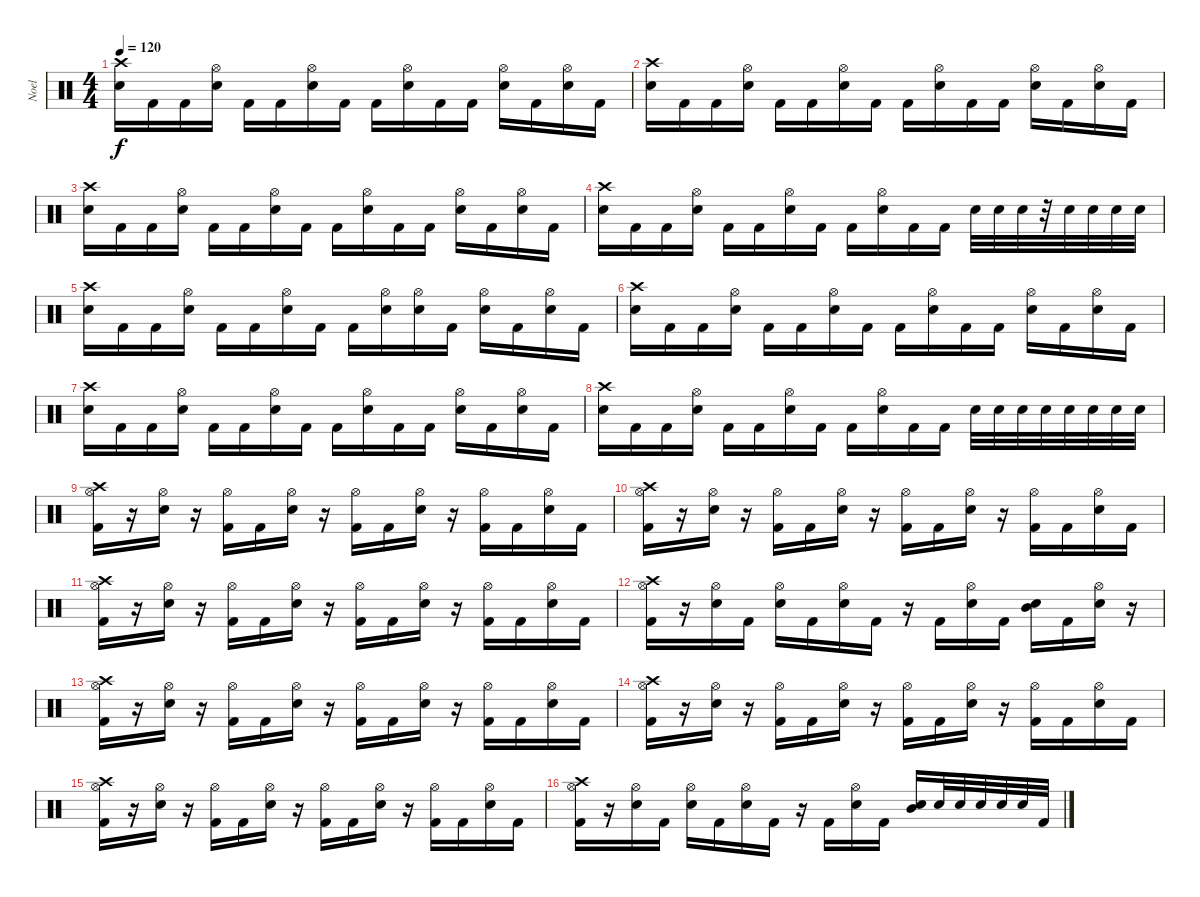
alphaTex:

\track ("Noel" "Noel") {instrument percussion}
\staff {score}
\articulation defaults
\ts (4 4)
\tempo 120
\clef neutral
\ks c
("Crash high (hit)" "Snare (hit) 2").16{dy f} "Kick (hit) 2".16 "Kick (hit) 2".16 ("Hi-Hat (open)" "Snare (hit) 2").16 "Kick (hit) 2".16 "Kick (hit) 2".16 ("Hi-Hat (open)" "Snare (hit) 2").16 "Kick (hit) 2".16 "Kick (hit) 2".16 ("Hi-Hat (open)" "Snare (hit) 2").16 "Kick (hit) 2".16 "Kick (hit) 2".16 ("Hi-Hat (open)" "Snare (hit) 2").16 "Kick (hit) 2".16 ("Hi-Hat (open)" "Snare (hit) 2").16 "Kick (hit) 2".16 |
("Crash high (hit)" "Snare (hit) 2").16 "Kick (hit) 2".16 "Kick (hit) 2".16 ("Hi-Hat (open)" "Snare (hit) 2").16 "Kick (hit) 2".16 "Kick (hit) 2".16 ("Hi-Hat (open)" "Snare (hit) 2").16 "Kick (hit) 2".16 "Kick (hit) 2".16 ("Hi-Hat (open)" "Snare (hit) 2").16 "Kick (hit) 2".16 "Kick (hit) 2".16 ("Hi-Hat (open)" "Snare (hit) 2").16 "Kick (hit) 2".16 ("Hi-Hat (open)" "Snare (hit) 2").16 "Kick (hit) 2".16 |
("Crash high (hit)" "Snare (hit) 2").16 "Kick (hit) 2".16 "Kick (hit) 2".16 ("Hi-Hat (open)" "Snare (hit) 2").16 "Kick (hit) 2".16 "Kick (hit) 2".16 ("Hi-Hat (open)" "Snare (hit) 2").16 "Kick (hit) 2".16 "Kick (hit) 2".16 ("Hi-Hat (open)" "Snare (hit) 2").16 "Kick (hit) 2".16 "Kick (hit) 2".16 ("Hi-Hat (open)" "Snare (hit) 2").16 "Kick (hit) 2".16 ("Hi-Hat (open)" "Snare (hit) 2").16 "Kick (hit) 2".16 |
("Crash high (hit)" "Snare (hit) 2").16 "Kick (hit) 2".16 "Kick (hit) 2".16 ("Hi-Hat (open)" "Snare (hit) 2").16 "Kick (hit) 2".16 "Kick (hit) 2".16 ("Hi-Hat (open)" "Snare (hit) 2").16 "Kick (hit) 2".16 "Kick (hit) 2".16 ("Hi-Hat (open)" "Snare (hit) 2").16 "Kick (hit) 2".16 "Kick (hit) 2".16 "Snare (hit) 2".32 "Snare (hit) 2".32 "Snare (hit) 2".32 r.32 "Snare (hit) 2".32 "Snare (hit) 2".32 "Snare (hit) 2".32 "Snare (hit) 2".32 |
("Crash high (hit)" "Snare (hit) 2").16 "Kick (hit) 2".16 "Kick (hit) 2".16 ("Hi-Hat (open)" "Snare (hit) 2").16 "Kick (hit) 2".16 "Kick (hit) 2".16 ("Hi-Hat (open)" "Snare (hit) 2").16 "Kick (hit) 2".16 "Kick (hit) 2".16 ("Hi-Hat (open)" "Snare (hit) 2").16 ("Hi-Hat (open)" "Snare (hit) 2").16 "Kick (hit) 2".16 ("Hi-Hat (open)" "Snare (hit) 2").16 "Kick (hit) 2".16 ("Hi-Hat (open)" "Snare (hit) 2").16 "Kick (hit) 2".16 |
("Crash high (hit)" "Snare (hit) 2").16 "Kick (hit) 2".16 "Kick (hit) 2".16 ("Hi-Hat (open)" "Snare (hit) 2").16 "Kick (hit) 2".16 "Kick (hit) 2".16 ("Hi-Hat (open)" "Snare (hit) 2").16 "Kick (hit) 2".16 "Kick (hit) 2".16 ("Hi-Hat (open)" "Snare (hit) 2").16 "Kick (hit) 2".16 "Kick (hit) 2".16 ("Hi-Hat (open)" "Snare (hit) 2").16 "Kick (hit) 2".16 ("Hi-Hat (open)" "Snare (hit) 2").16 "Kick (hit) 2".16 |
("Crash high (hit)" "Snare (hit) 2").16 "Kick (hit) 2".16 "Kick (hit) 2".16 ("Hi-Hat (open)" "Snare (hit) 2").16 "Kick (hit) 2".16 "Kick (hit) 2".16 ("Hi-Hat (open)" "Snare (hit) 2").16 "Kick (hit) 2".16 "Kick (hit) 2".16 ("Hi-Hat (open)" "Snare (hit) 2").16 "Kick (hit) 2".16 "Kick (hit) 2".16 ("Hi-Hat (open)" "Snare (hit) 2").16 "Kick (hit) 2".16 ("Hi-Hat (open)" "Snare (hit) 2").16 "Kick (hit) 2".16 |
("Crash high (hit)" "Snare (hit) 2").16 "Kick (hit) 2".16 "Kick (hit) 2".16 ("Hi-Hat (open)" "Snare (hit) 2").16 "Kick (hit) 2".16 "Kick (hit) 2".16 ("Hi-Hat (open)" "Snare (hit) 2").16 "Kick (hit) 2".16 "Kick (hit) 2".16 ("Hi-Hat (open)" "Snare (hit) 2").16 "Kick (hit) 2".16 "Kick (hit) 2".16 "Snare (hit) 2".32 "Snare (hit) 2".32 "Snare (hit) 2".32 "Snare (hit) 2".32 "Snare (hit) 2".32 "Snare (hit) 2".32 "Snare (hit) 2".32 "Snare (hit) 2".32 |
("Crash high (hit)" "Hi-Hat (open)" "Kick (hit) 2").16 r.16 ("Hi-Hat (open)" "Snare (hit) 2").16 r.16 ("Hi-Hat (open)" "Kick (hit) 2").16 "Kick (hit) 2".16 ("Hi-Hat (open)" "Snare (hit) 2").16 r.16 ("Hi-Hat (open)" "Kick (hit) 2").16 "Kick (hit) 2".16 ("Hi-Hat (open)" "Snare (hit) 2").16 r.16 ("Hi-Hat (open)" "Kick (hit) 2").16 "Kick (hit) 2".16 ("Hi-Hat (open)" "Snare (hit) 2").16 "Kick (hit) 2".16 |
("Crash high (hit)" "Hi-Hat (open)" "Kick (hit) 2").16 r.16 ("Hi-Hat (open)" "Snare (hit) 2").16 r.16 ("Hi-Hat (open)" "Kick (hit) 2").16 "Kick (hit) 2".16 ("Hi-Hat (open)" "Snare (hit) 2").16 r.16 ("Hi-Hat (open)" "Kick (hit) 2").16 "Kick (hit) 2".16 ("Hi-Hat (open)" "Snare (hit) 2").16 r.16 ("Hi-Hat (open)" "Kick (hit) 2").16 "Kick (hit) 2".16 ("Hi-Hat (open)" "Snare (hit) 2").16 "Kick (hit) 2".16 |
("Crash high (hit)" "Hi-Hat (open)" "Kick (hit) 2").16 r.16 ("Hi-Hat (open)" "Snare (hit) 2").16 r.16 ("Hi-Hat (open)" "Kick (hit) 2").16 "Kick (hit) 2".16 ("Hi-Hat (open)" "Snare (hit) 2").16 r.16 ("Hi-Hat (open)" "Kick (hit) 2").16 "Kick (hit) 2".16 ("Hi-Hat (open)" "Snare (hit) 2").16 r.16 ("Hi-Hat (open)" "Kick (hit) 2").16 "Kick (hit) 2".16 ("Hi-Hat (open)" "Snare (hit) 2").16 "Kick (hit) 2".16 |
("Crash high (hit)" "Hi-Hat (open)" "Kick (hit) 2").16 r.16 ("Hi-Hat (open)" "Snare (hit) 2").16 "Kick (hit) 2".16 ("Hi-Hat (open)" "Snare (hit) 2").16 "Kick (hit) 2".16 ("Hi-Hat (open)" "Snare (hit) 2").16 "Kick (hit) 2".16 r.16 "Kick (hit) 2".16 ("Hi-Hat (open)" "Snare (hit) 2").16 "Kick (hit) 2".16 ("Snare (hit) 2" "Mid Tom (hit)").16 "Kick (hit) 2".16 ("Hi-Hat (open)" "Snare (hit) 2").16 r.16 |
("Crash high (hit)" "Hi-Hat (open)" "Kick (hit) 2").16 r.16 ("Hi-Hat (open)" "Snare (hit) 2").16 r.16 ("Hi-Hat (open)" "Kick (hit) 2").16 "Kick (hit) 2".16 ("Hi-Hat (open)" "Snare (hit) 2").16 r.16 ("Hi-Hat (open)" "Kick (hit) 2").16 "Kick (hit) 2".16 ("Hi-Hat (open)" "Snare (hit) 2").16 r.16 ("Hi-Hat (open)" "Kick (hit) 2").16 "Kick (hit) 2".16 ("Hi-Hat (open)" "Snare (hit) 2").16 "Kick (hit) 2".16 |
("Crash high (hit)" "Hi-Hat (open)" "Kick (hit) 2").16 r.16 ("Hi-Hat (open)" "Snare (hit) 2").16 r.16 ("Hi-Hat (open)" "Kick (hit) 2").16 "Kick (hit) 2".16 ("Hi-Hat (open)" "Snare (hit) 2").16 r.16 ("Hi-Hat (open)" "Kick (hit) 2").16 "Kick (hit) 2".16 ("Hi-Hat (open)" "Snare (hit) 2").16 r.16 ("Hi-Hat (open)" "Kick (hit) 2").16 "Kick (hit) 2".16 ("Hi-Hat (open)" "Snare (hit) 2").16 "Kick (hit) 2".16 |
("Crash high (hit)" "Hi-Hat (open)" "Kick (hit) 2").16 r.16 ("Hi-Hat (open)" "Snare (hit) 2").16 r.16 ("Hi-Hat (open)" "Kick (hit) 2").16 "Kick (hit) 2".16 ("Hi-Hat (open)" "Snare (hit) 2").16 r.16 ("Hi-Hat (open)" "Kick (hit) 2").16 "Kick (hit) 2".16 ("Hi-Hat (open)" "Snare (hit) 2").16 r.16 ("Hi-Hat (open)" "Kick (hit) 2").16 "Kick (hit) 2".16 ("Hi-Hat (open)" "Snare (hit) 2").16 "Kick (hit) 2".16 |
("Crash high (hit)" "Hi-Hat (open)" "Kick (hit) 2").16 r.16 ("Hi-Hat (open)" "Snare (hit) 2").16 "Kick (hit) 2".16 ("Hi-Hat (open)" "Snare (hit) 2").16 "Kick (hit) 2".16 ("Hi-Hat (open)" "Snare (hit) 2").16 "Kick (hit) 2".16 r.16 "Kick (hit) 2".16 ("Hi-Hat (open)" "Snare (hit) 2").16 "Kick (hit) 2".16 ("Snare (hit) 2" "Mid Tom (hit)").16 "Snare (hit) 2".32 "Snare (hit) 2".32 "Snare (hit) 2".32 "Snare (hit) 2".32 "Snare (hit) 2".32 "Kick (hit) 2".32
